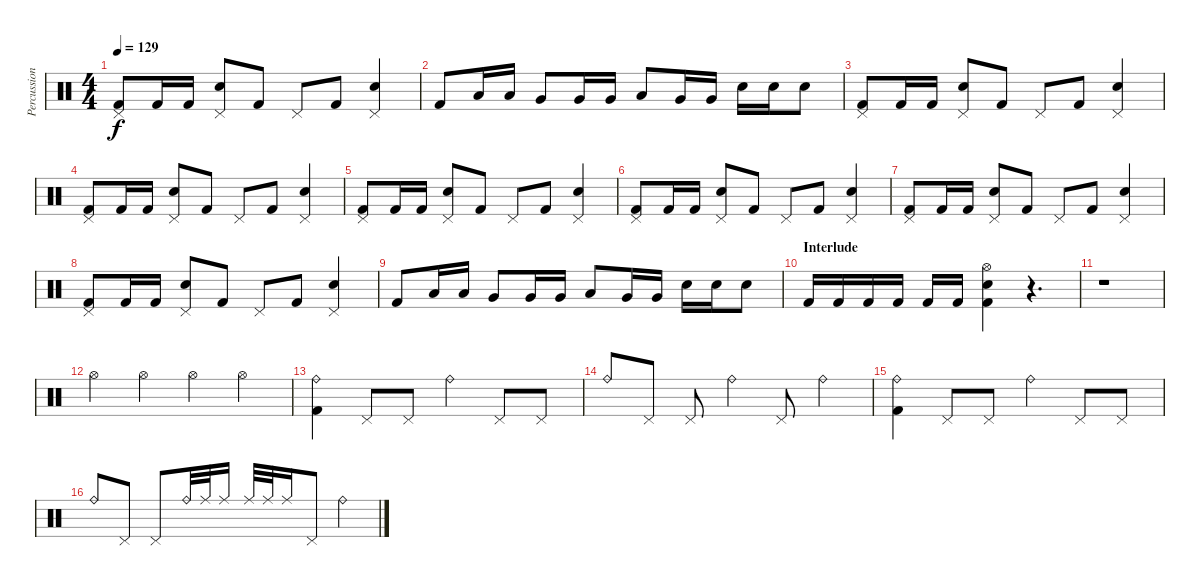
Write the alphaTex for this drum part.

\track ("Percussion" "Percussion") {instrument percussion}
\staff {score}
\articulation defaults
\ts (4 4)
\tempo 129
\clef neutral
\ks c
("Pedal Hi-Hat (hit)" "Kick (hit) 2").8{dy f} "Kick (hit) 2".16 "Kick (hit) 2".16 ("Pedal Hi-Hat (hit)" "Electric Snare (hit)").8 "Kick (hit) 2".8 "Pedal Hi-Hat (hit)".8 "Kick (hit) 2".8 ("Pedal Hi-Hat (hit)" "Electric Snare (hit)").4 |
"Kick (hit) 2".8 "Low Floor Tom (hit)".16 "Low Floor Tom (hit)".16 "Very Low Tom (hit)".8 "Very Low Tom (hit)".16 "Very Low Tom (hit)".16 "Low Tom (hit)".8 "Very Low Tom (hit)".16 "Very Low Tom (hit)".16 "Electric Snare (hit)".16 "Electric Snare (hit)".16 "Electric Snare (hit)".8 |
("Pedal Hi-Hat (hit)" "Kick (hit) 2").8 "Kick (hit) 2".16 "Kick (hit) 2".16 ("Pedal Hi-Hat (hit)" "Electric Snare (hit)").8 "Kick (hit) 2".8 "Pedal Hi-Hat (hit)".8 "Kick (hit) 2".8 ("Pedal Hi-Hat (hit)" "Electric Snare (hit)").4 |
("Pedal Hi-Hat (hit)" "Kick (hit) 2").8 "Kick (hit) 2".16 "Kick (hit) 2".16 ("Pedal Hi-Hat (hit)" "Electric Snare (hit)").8 "Kick (hit) 2".8 "Pedal Hi-Hat (hit)".8 "Kick (hit) 2".8 ("Pedal Hi-Hat (hit)" "Electric Snare (hit)").4 |
("Pedal Hi-Hat (hit)" "Kick (hit) 2").8 "Kick (hit) 2".16 "Kick (hit) 2".16 ("Pedal Hi-Hat (hit)" "Electric Snare (hit)").8 "Kick (hit) 2".8 "Pedal Hi-Hat (hit)".8 "Kick (hit) 2".8 ("Pedal Hi-Hat (hit)" "Electric Snare (hit)").4 |
("Pedal Hi-Hat (hit)" "Kick (hit) 2").8 "Kick (hit) 2".16 "Kick (hit) 2".16 ("Pedal Hi-Hat (hit)" "Electric Snare (hit)").8 "Kick (hit) 2".8 "Pedal Hi-Hat (hit)".8 "Kick (hit) 2".8 ("Pedal Hi-Hat (hit)" "Electric Snare (hit)").4 |
("Pedal Hi-Hat (hit)" "Kick (hit) 2").8 "Kick (hit) 2".16 "Kick (hit) 2".16 ("Pedal Hi-Hat (hit)" "Electric Snare (hit)").8 "Kick (hit) 2".8 "Pedal Hi-Hat (hit)".8 "Kick (hit) 2".8 ("Pedal Hi-Hat (hit)" "Electric Snare (hit)").4 |
("Pedal Hi-Hat (hit)" "Kick (hit) 2").8 "Kick (hit) 2".16 "Kick (hit) 2".16 ("Pedal Hi-Hat (hit)" "Electric Snare (hit)").8 "Kick (hit) 2".8 "Pedal Hi-Hat (hit)".8 "Kick (hit) 2".8 ("Pedal Hi-Hat (hit)" "Electric Snare (hit)").4 |
"Kick (hit) 2".8 "Low Floor Tom (hit)".16 "Low Floor Tom (hit)".16 "Very Low Tom (hit)".8 "Very Low Tom (hit)".16 "Very Low Tom (hit)".16 "Low Tom (hit)".8 "Very Low Tom (hit)".16 "Very Low Tom (hit)".16 "Electric Snare (hit)".16 "Electric Snare (hit)".16 "Electric Snare (hit)".8 |
\section ("" "Interlude")
"Kick (hit) 2".16 "Kick (hit) 2".16 "Kick (hit) 2".16 "Kick (hit) 2".16 "Kick (hit) 2".16 "Kick (hit) 2".16 ("Hi-Hat (open)" "Electric Snare (hit)" "Kick (hit) 2").4 r.4{d} |
r.1 |
"Hi-Hat (open)".4 "Hi-Hat (open)".4 "Hi-Hat (open)".4 "Hi-Hat (open)".4 |
("Ride (bell)" "Kick (hit) 2").4 "Pedal Hi-Hat (hit)".8 "Pedal Hi-Hat (hit)".8 "Ride (bell)".4 "Pedal Hi-Hat (hit)".8 "Pedal Hi-Hat (hit)".8 |
"Ride (bell)".8 "Pedal Hi-Hat (hit)".8 "Pedal Hi-Hat (hit)".8 "Ride (bell)".4 "Pedal Hi-Hat (hit)".8 "Ride (bell)".4 |
("Ride (bell)" "Kick (hit) 2").4 "Pedal Hi-Hat (hit)".8 "Pedal Hi-Hat (hit)".8 "Ride (bell)".4 "Pedal Hi-Hat (hit)".8 "Pedal Hi-Hat (hit)".8 |
"Ride (bell)".8 "Pedal Hi-Hat (hit)".8 "Pedal Hi-Hat (hit)".8 "Ride (bell)".32 "Ride (middle)".32 "Ride (middle)".16 "Ride (middle)".32 "Ride (middle)".32 "Ride (middle)".16 "Pedal Hi-Hat (hit)".8 "Ride (bell)".4
